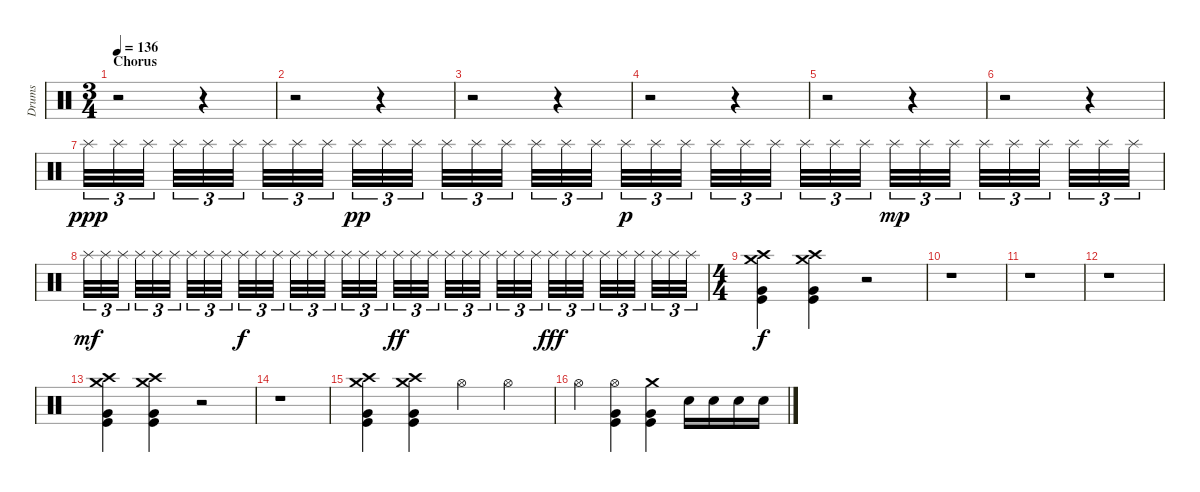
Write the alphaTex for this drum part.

\track ("Drums" "Drums") {instrument percussion}
\staff {score}
\articulation defaults
\ts (3 4)
\section ("" "Chorus")
\tempo 136
\clef neutral
\ks c
r.2{dy ff} r.4 |
r.2 r.4 |
r.2 r.4 |
r.2 r.4 |
r.2 r.4 |
r.2 r.4 |
"Splash (hit)".32{tu (3 2) dy ppp} "Splash (hit)".32{tu (3 2)} "Splash (hit)".32{tu (3 2)} "Splash (hit)".32{tu (3 2)} "Splash (hit)".32{tu (3 2)} "Splash (hit)".32{tu (3 2)} "Splash (hit)".32{tu (3 2)} "Splash (hit)".32{tu (3 2)} "Splash (hit)".32{tu (3 2)} "Splash (hit)".32{tu (3 2) dy pp} "Splash (hit)".32{tu (3 2)} "Splash (hit)".32{tu (3 2)} "Splash (hit)".32{tu (3 2)} "Splash (hit)".32{tu (3 2)} "Splash (hit)".32{tu (3 2)} "Splash (hit)".32{tu (3 2)} "Splash (hit)".32{tu (3 2)} "Splash (hit)".32{tu (3 2)} "Splash (hit)".32{tu (3 2) dy p} "Splash (hit)".32{tu (3 2)} "Splash (hit)".32{tu (3 2)} "Splash (hit)".32{tu (3 2)} "Splash (hit)".32{tu (3 2)} "Splash (hit)".32{tu (3 2)} "Splash (hit)".32{tu (3 2)} "Splash (hit)".32{tu (3 2)} "Splash (hit)".32{tu (3 2)} "Splash (hit)".32{tu (3 2) dy mp} "Splash (hit)".32{tu (3 2)} "Splash (hit)".32{tu (3 2)} "Splash (hit)".32{tu (3 2)} "Splash (hit)".32{tu (3 2)} "Splash (hit)".32{tu (3 2)} "Splash (hit)".32{tu (3 2)} "Splash (hit)".32{tu (3 2)} "Splash (hit)".32{tu (3 2)} |
"Splash (hit)".32{tu (3 2) dy mf} "Splash (hit)".32{tu (3 2)} "Splash (hit)".32{tu (3 2)} "Splash (hit)".32{tu (3 2)} "Splash (hit)".32{tu (3 2)} "Splash (hit)".32{tu (3 2)} "Splash (hit)".32{tu (3 2)} "Splash (hit)".32{tu (3 2)} "Splash (hit)".32{tu (3 2)} "Splash (hit)".32{tu (3 2) dy f} "Splash (hit)".32{tu (3 2)} "Splash (hit)".32{tu (3 2)} "Splash (hit)".32{tu (3 2)} "Splash (hit)".32{tu (3 2)} "Splash (hit)".32{tu (3 2)} "Splash (hit)".32{tu (3 2)} "Splash (hit)".32{tu (3 2)} "Splash (hit)".32{tu (3 2)} "Splash (hit)".32{tu (3 2) dy ff} "Splash (hit)".32{tu (3 2)} "Splash (hit)".32{tu (3 2)} "Splash (hit)".32{tu (3 2)} "Splash (hit)".32{tu (3 2)} "Splash (hit)".32{tu (3 2)} "Splash (hit)".32{tu (3 2)} "Splash (hit)".32{tu (3 2)} "Splash (hit)".32{tu (3 2)} "Splash (hit)".32{tu (3 2) dy fff} "Splash (hit)".32{tu (3 2)} "Splash (hit)".32{tu (3 2)} "Splash (hit)".32{tu (3 2)} "Splash (hit)".32{tu (3 2)} "Splash (hit)".32{tu (3 2)} "Splash (hit)".32{tu (3 2)} "Splash (hit)".32{tu (3 2)} "Splash (hit)".32{tu (3 2)} |
\ts (4 4)
("Crash medium (hit)" "Crash high (hit)" "Very Low Tom (hit)" "Kick (hit)").4{dy f} ("Crash medium (hit)" "Crash high (hit)" "Very Low Tom (hit)" "Kick (hit)").4 r.2 |
r.1 |
r.1 |
r.1 |
("Crash medium (hit)" "Crash high (hit)" "Very Low Tom (hit)" "Kick (hit)").4 ("Crash medium (hit)" "Crash high (hit)" "Very Low Tom (hit)" "Kick (hit)").4 r.2 |
r.1 |
("Crash medium (hit)" "Crash high (hit)" "Very Low Tom (hit)" "Kick (hit)").4 ("Crash medium (hit)" "Crash high (hit)" "Very Low Tom (hit)" "Kick (hit)").4 "Hi-Hat (open)".4 "Hi-Hat (open)".4 |
"Hi-Hat (open)".4 ("Hi-Hat (open)" "Very Low Tom (hit)" "Kick (hit)").4 ("Crash medium (hit)" "Very Low Tom (hit)" "Kick (hit)").4 "Electric Snare (hit)".16 "Electric Snare (hit)".16 "Electric Snare (hit)".16 "Electric Snare (hit)".16
